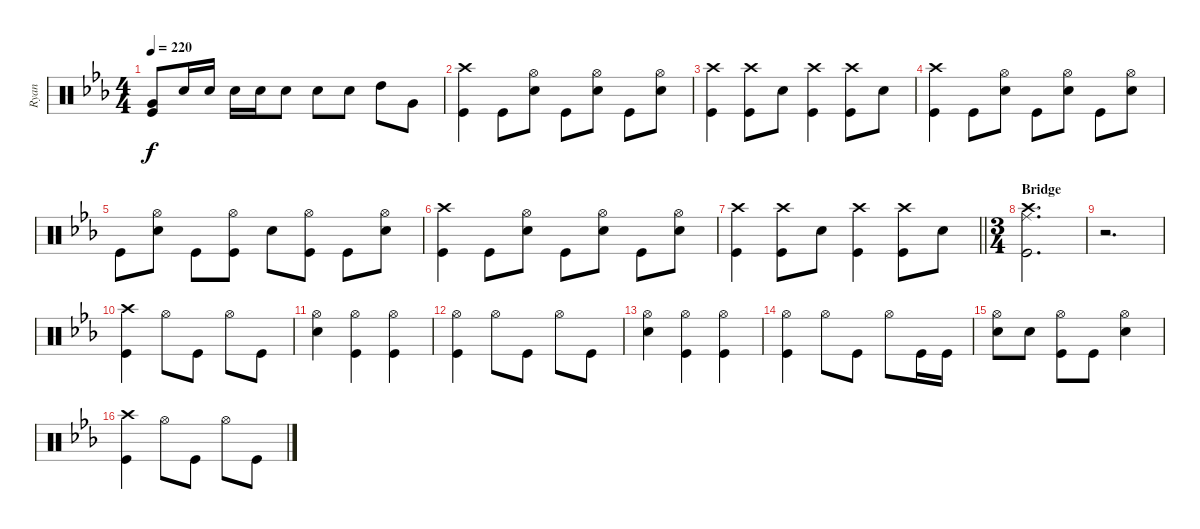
\track ("Ryan" "Ryan") {instrument percussion}
\staff {score}
\articulation defaults
\ts (4 4)
\tempo 220
\clef neutral
\ks cminor
("Kick (hit)" "Very Low Tom (hit)").8{dy f} "Snare (hit) 2".16 "Snare (hit) 2".16 "Snare (hit) 2".16 "Snare (hit) 2".16 "Snare (hit) 2".8 "Snare (hit) 2".8 "Snare (hit) 2".8 "High Tom (hit)".8 "Very Low Tom (hit)".8 |
("Kick (hit)" "Crash high (hit)").4 "Kick (hit)".8 ("Snare (hit) 2" "Hi-Hat (open)").8 "Kick (hit)".8 ("Snare (hit) 2" "Hi-Hat (open)").8 "Kick (hit)".8 ("Snare (hit) 2" "Hi-Hat (open)").8 |
("Kick (hit)" "Crash high (hit)").4 ("Crash high (hit)" "Kick (hit)").8 "Snare (hit) 2".8 ("Kick (hit)" "Crash high (hit)").4 ("Crash high (hit)" "Kick (hit)").8 "Snare (hit) 2".8 |
("Kick (hit)" "Crash high (hit)").4 "Kick (hit)".8 ("Snare (hit) 2" "Hi-Hat (open)").8 "Kick (hit)".8 ("Snare (hit) 2" "Hi-Hat (open)").8 "Kick (hit)".8 ("Snare (hit) 2" "Hi-Hat (open)").8 |
"Kick (hit)".8 ("Hi-Hat (open)" "Snare (hit) 2").8 "Kick (hit)".8 ("Kick (hit)" "Hi-Hat (open)").8 "Snare (hit) 2".8 ("Kick (hit)" "Hi-Hat (open)").8 "Kick (hit)".8 ("Snare (hit) 2" "Hi-Hat (open)").8 |
("Kick (hit)" "Crash high (hit)").4 "Kick (hit)".8 ("Snare (hit) 2" "Hi-Hat (open)").8 "Kick (hit)".8 ("Snare (hit) 2" "Hi-Hat (open)").8 "Kick (hit)".8 ("Snare (hit) 2" "Hi-Hat (open)").8 |
\barLineRight lightlight
("Kick (hit)" "Crash high (hit)").4 ("Crash high (hit)" "Kick (hit)").8 "Snare (hit) 2".8 ("Kick (hit)" "Crash high (hit)").4 ("Crash high (hit)" "Kick (hit)").8 "Snare (hit) 2".8 |
\ts (3 4)
\section ("" "Bridge")
("Kick (hit)" "Crash high (hit)" "Ride (middle)").2{d} |
r.2{d} |
("Crash high (hit)" "Kick (hit)").4 "Hi-Hat (open)".8 "Kick (hit)".8 "Hi-Hat (open)".8 "Kick (hit)".8 |
("Snare (hit) 2" "Hi-Hat (open)").4 ("Kick (hit)" "Hi-Hat (open)").4 ("Kick (hit)" "Hi-Hat (open)").4 |
("Kick (hit)" "Hi-Hat (open)").4 "Hi-Hat (open)".8 "Kick (hit)".8 "Hi-Hat (open)".8 "Kick (hit)".8 |
("Snare (hit) 2" "Hi-Hat (open)").4 ("Kick (hit)" "Hi-Hat (open)").4 ("Kick (hit)" "Hi-Hat (open)").4 |
("Kick (hit)" "Hi-Hat (open)").4 "Hi-Hat (open)".8 "Kick (hit)".8 "Hi-Hat (open)".8 "Kick (hit)".16 "Kick (hit)".16 |
("Hi-Hat (open)" "Snare (hit) 2").8 "Snare (hit) 2".8 ("Kick (hit)" "Hi-Hat (open)").8 "Kick (hit)".8 ("Hi-Hat (open)" "Snare (hit) 2").4 |
("Crash high (hit)" "Kick (hit)").4 "Hi-Hat (open)".8 "Kick (hit)".8 "Hi-Hat (open)".8 "Kick (hit)".8
